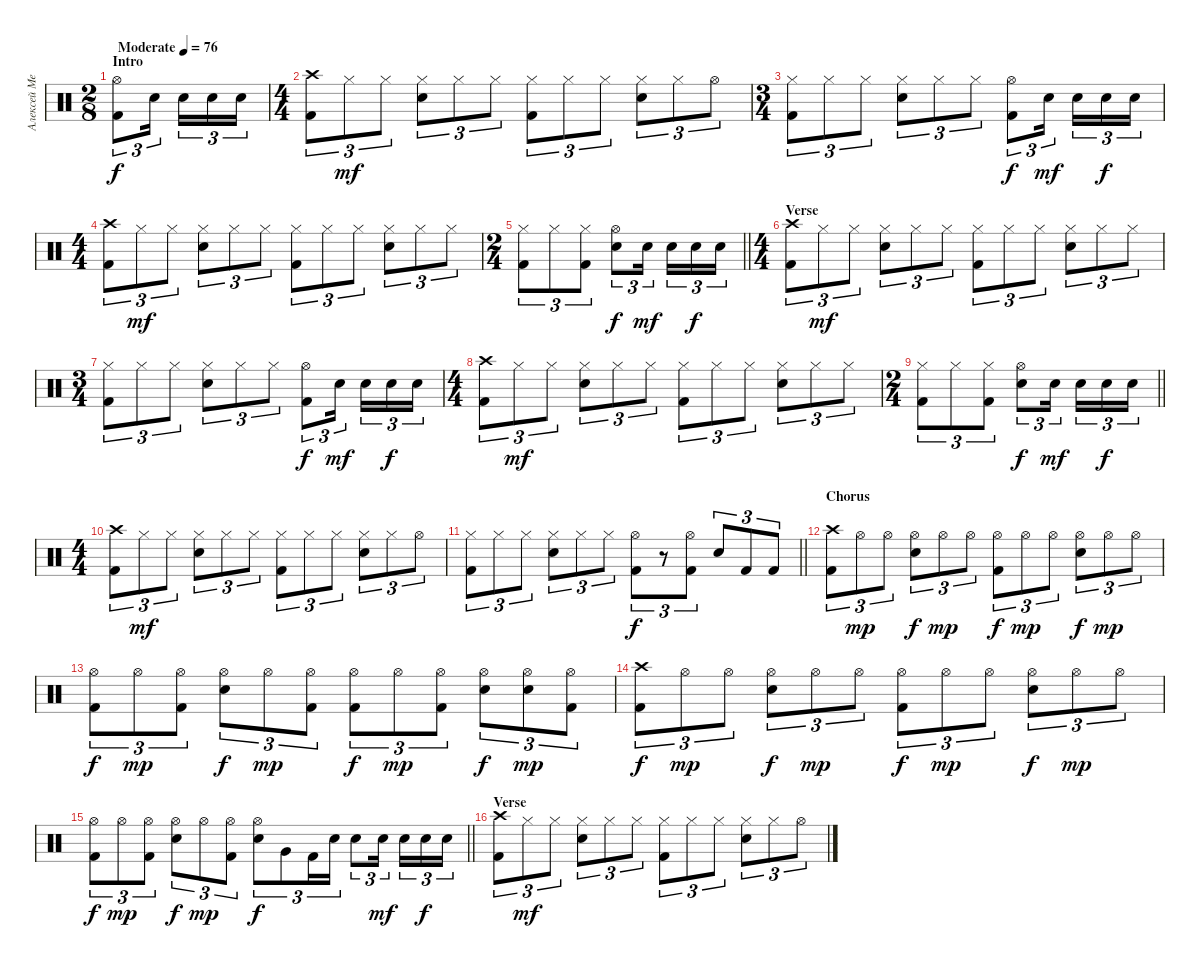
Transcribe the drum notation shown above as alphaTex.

\track ("Алексей Мещеряков" "Алексей Ме") {instrument percussion}
\staff {score}
\articulation defaults
\ts (2 8)
\section ("" "Intro")
\tempo (76 "Moderate")
\clef neutral
\ks c
("Hi-Hat (open)" "Kick (hit) 2").8{tu (3 2) dy f} "Electric Snare (hit)".16{tu (3 2)} "Electric Snare (hit)".16{tu (3 2)} "Electric Snare (hit)".16{tu (3 2)} "Electric Snare (hit)".16{tu (3 2)} |
\ts (4 4)
("Crash high (hit)" "Kick (hit) 2").8{tu (3 2)} "Hi-Hat (closed)".8{tu (3 2) dy mf} "Hi-Hat (closed)".8{tu (3 2)} ("Hi-Hat (closed)" "Electric Snare (hit)").8{tu (3 2)} "Hi-Hat (closed)".8{tu (3 2)} "Hi-Hat (closed)".8{tu (3 2)} ("Hi-Hat (closed)" "Kick (hit) 2").8{tu (3 2)} "Hi-Hat (closed)".8{tu (3 2)} "Hi-Hat (closed)".8{tu (3 2)} ("Hi-Hat (closed)" "Electric Snare (hit)").8{tu (3 2)} "Hi-Hat (closed)".8{tu (3 2)} "Hi-Hat (open)".8{tu (3 2)} |
\ts (3 4)
("Hi-Hat (closed)" "Kick (hit) 2").8{tu (3 2)} "Hi-Hat (closed)".8{tu (3 2)} "Hi-Hat (closed)".8{tu (3 2)} ("Hi-Hat (closed)" "Electric Snare (hit)").8{tu (3 2)} "Hi-Hat (closed)".8{tu (3 2)} "Hi-Hat (closed)".8{tu (3 2)} ("Hi-Hat (open)" "Kick (hit) 2").8{tu (3 2) dy f} "Electric Snare (hit)".16{tu (3 2) dy mf beam splitsecondary} "Electric Snare (hit)".16{tu (3 2)} "Electric Snare (hit)".16{tu (3 2) dy f} "Electric Snare (hit)".16{tu (3 2)} |
\ts (4 4)
("Crash high (hit)" "Kick (hit) 2").8{tu (3 2)} "Hi-Hat (closed)".8{tu (3 2) dy mf} "Hi-Hat (closed)".8{tu (3 2)} ("Hi-Hat (closed)" "Electric Snare (hit)").8{tu (3 2)} "Hi-Hat (closed)".8{tu (3 2)} "Hi-Hat (closed)".8{tu (3 2)} ("Hi-Hat (closed)" "Kick (hit) 2").8{tu (3 2)} "Hi-Hat (closed)".8{tu (3 2)} "Hi-Hat (closed)".8{tu (3 2)} ("Hi-Hat (closed)" "Electric Snare (hit)").8{tu (3 2)} "Hi-Hat (closed)".8{tu (3 2)} "Hi-Hat (closed)".8{tu (3 2)} |
\ts (2 4)
\barLineRight lightlight
("Hi-Hat (closed)" "Kick (hit) 2").8{tu (3 2)} "Hi-Hat (closed)".8{tu (3 2)} ("Hi-Hat (closed)" "Kick (hit) 2").8{tu (3 2)} ("Hi-Hat (open)" "Electric Snare (hit)").8{tu (3 2) dy f} "Electric Snare (hit)".16{tu (3 2) dy mf beam splitsecondary} "Electric Snare (hit)".16{tu (3 2)} "Electric Snare (hit)".16{tu (3 2) dy f} "Electric Snare (hit)".16{tu (3 2)} |
\ts (4 4)
\section ("" "Verse")
("Crash high (hit)" "Kick (hit) 2").8{tu (3 2)} "Hi-Hat (closed)".8{tu (3 2) dy mf} "Hi-Hat (closed)".8{tu (3 2)} ("Hi-Hat (closed)" "Electric Snare (hit)").8{tu (3 2)} "Hi-Hat (closed)".8{tu (3 2)} "Hi-Hat (closed)".8{tu (3 2)} ("Hi-Hat (closed)" "Kick (hit) 2").8{tu (3 2)} "Hi-Hat (closed)".8{tu (3 2)} "Hi-Hat (closed)".8{tu (3 2)} ("Hi-Hat (closed)" "Electric Snare (hit)").8{tu (3 2)} "Hi-Hat (closed)".8{tu (3 2)} "Hi-Hat (closed)".8{tu (3 2)} |
\ts (3 4)
("Hi-Hat (closed)" "Kick (hit) 2").8{tu (3 2)} "Hi-Hat (closed)".8{tu (3 2)} "Hi-Hat (closed)".8{tu (3 2)} ("Hi-Hat (closed)" "Electric Snare (hit)").8{tu (3 2)} "Hi-Hat (closed)".8{tu (3 2)} "Hi-Hat (closed)".8{tu (3 2)} ("Hi-Hat (open)" "Kick (hit) 2").8{tu (3 2) dy f} "Electric Snare (hit)".16{tu (3 2) dy mf beam splitsecondary} "Electric Snare (hit)".16{tu (3 2)} "Electric Snare (hit)".16{tu (3 2) dy f} "Electric Snare (hit)".16{tu (3 2)} |
\ts (4 4)
("Crash high (hit)" "Kick (hit) 2").8{tu (3 2)} "Hi-Hat (closed)".8{tu (3 2) dy mf} "Hi-Hat (closed)".8{tu (3 2)} ("Hi-Hat (closed)" "Electric Snare (hit)").8{tu (3 2)} "Hi-Hat (closed)".8{tu (3 2)} "Hi-Hat (closed)".8{tu (3 2)} ("Hi-Hat (closed)" "Kick (hit) 2").8{tu (3 2)} "Hi-Hat (closed)".8{tu (3 2)} "Hi-Hat (closed)".8{tu (3 2)} ("Hi-Hat (closed)" "Electric Snare (hit)").8{tu (3 2)} "Hi-Hat (closed)".8{tu (3 2)} "Hi-Hat (closed)".8{tu (3 2)} |
\ts (2 4)
\barLineRight lightlight
("Hi-Hat (closed)" "Kick (hit) 2").8{tu (3 2)} "Hi-Hat (closed)".8{tu (3 2)} ("Hi-Hat (closed)" "Kick (hit) 2").8{tu (3 2)} ("Hi-Hat (open)" "Electric Snare (hit)").8{tu (3 2) dy f} "Electric Snare (hit)".16{tu (3 2) dy mf beam splitsecondary} "Electric Snare (hit)".16{tu (3 2)} "Electric Snare (hit)".16{tu (3 2) dy f} "Electric Snare (hit)".16{tu (3 2)} |
\ts (4 4)
("Crash high (hit)" "Kick (hit) 2").8{tu (3 2)} "Hi-Hat (closed)".8{tu (3 2) dy mf} "Hi-Hat (closed)".8{tu (3 2)} ("Hi-Hat (closed)" "Electric Snare (hit)").8{tu (3 2)} "Hi-Hat (closed)".8{tu (3 2)} "Hi-Hat (closed)".8{tu (3 2)} ("Hi-Hat (closed)" "Kick (hit) 2").8{tu (3 2)} "Hi-Hat (closed)".8{tu (3 2)} "Hi-Hat (closed)".8{tu (3 2)} ("Hi-Hat (closed)" "Electric Snare (hit)").8{tu (3 2)} "Hi-Hat (closed)".8{tu (3 2)} "Hi-Hat (open)".8{tu (3 2)} |
\barLineRight lightlight
("Hi-Hat (closed)" "Kick (hit) 2").8{tu (3 2)} "Hi-Hat (closed)".8{tu (3 2)} "Hi-Hat (closed)".8{tu (3 2)} ("Hi-Hat (closed)" "Electric Snare (hit)").8{tu (3 2)} "Hi-Hat (closed)".8{tu (3 2)} "Hi-Hat (closed)".8{tu (3 2)} ("Hi-Hat (open)" "Kick (hit) 2").8{tu (3 2) dy f} r.8{tu (3 2)} ("Hi-Hat (open)" "Kick (hit) 2").8{tu (3 2)} "Electric Snare (hit)".8{tu (3 2)} "Kick (hit) 2".8{tu (3 2)} "Kick (hit) 2".8{tu (3 2)} |
\section ("" "Chorus")
("Crash high (hit)" "Kick (hit) 2").8{tu (3 2)} "Hi-Hat (open)".8{tu (3 2) dy mp} "Hi-Hat (open)".8{tu (3 2)} ("Hi-Hat (open)" "Electric Snare (hit)").8{tu (3 2) dy f} "Hi-Hat (open)".8{tu (3 2) dy mp} "Hi-Hat (open)".8{tu (3 2)} ("Hi-Hat (open)" "Kick (hit) 2").8{tu (3 2) dy f} "Hi-Hat (open)".8{tu (3 2) dy mp} "Hi-Hat (open)".8{tu (3 2)} ("Hi-Hat (open)" "Electric Snare (hit)").8{tu (3 2) dy f} "Hi-Hat (open)".8{tu (3 2) dy mp} "Hi-Hat (open)".8{tu (3 2)} |
("Hi-Hat (open)" "Kick (hit) 2").8{tu (3 2) dy f} "Hi-Hat (open)".8{tu (3 2) dy mp} ("Hi-Hat (open)" "Kick (hit) 2").8{tu (3 2)} ("Hi-Hat (open)" "Electric Snare (hit)").8{tu (3 2) dy f} "Hi-Hat (open)".8{tu (3 2) dy mp} ("Hi-Hat (open)" "Kick (hit) 2").8{tu (3 2)} ("Hi-Hat (open)" "Kick (hit) 2").8{tu (3 2) dy f} "Hi-Hat (open)".8{tu (3 2) dy mp} ("Hi-Hat (open)" "Kick (hit) 2").8{tu (3 2)} ("Hi-Hat (open)" "Electric Snare (hit)").8{tu (3 2) dy f} ("Hi-Hat (open)" "Electric Snare (hit)").8{tu (3 2) dy mp} ("Hi-Hat (open)" "Kick (hit) 2").8{tu (3 2)} |
("Crash high (hit)" "Kick (hit) 2").8{tu (3 2) dy f} "Hi-Hat (open)".8{tu (3 2) dy mp} "Hi-Hat (open)".8{tu (3 2)} ("Hi-Hat (open)" "Electric Snare (hit)").8{tu (3 2) dy f} "Hi-Hat (open)".8{tu (3 2) dy mp} "Hi-Hat (open)".8{tu (3 2)} ("Hi-Hat (open)" "Kick (hit) 2").8{tu (3 2) dy f} "Hi-Hat (open)".8{tu (3 2) dy mp} "Hi-Hat (open)".8{tu (3 2)} ("Hi-Hat (open)" "Electric Snare (hit)").8{tu (3 2) dy f} "Hi-Hat (open)".8{tu (3 2) dy mp} "Hi-Hat (open)".8{tu (3 2)} |
\barLineRight lightlight
("Hi-Hat (open)" "Kick (hit) 2").8{tu (3 2) dy f} "Hi-Hat (open)".8{tu (3 2) dy mp} ("Hi-Hat (open)" "Kick (hit) 2").8{tu (3 2)} ("Hi-Hat (open)" "Electric Snare (hit)").8{tu (3 2) dy f} "Hi-Hat (open)".8{tu (3 2) dy mp} ("Hi-Hat (open)" "Kick (hit) 2").8{tu (3 2)} ("Hi-Hat (open)" "Electric Snare (hit)").8{tu (3 2) dy f} "Very Low Tom (hit)".8{tu (3 2)} "Kick (hit) 2".16{tu (3 2)} "Electric Snare (hit)".16{tu (3 2)} "Electric Snare (hit)".8{tu (3 2)} "Electric Snare (hit)".16{tu (3 2) dy mf beam splitsecondary} "Electric Snare (hit)".16{tu (3 2)} "Electric Snare (hit)".16{tu (3 2) dy f} "Electric Snare (hit)".16{tu (3 2)} |
\section ("" "Verse ")
("Crash high (hit)" "Kick (hit) 2").8{tu (3 2)} "Hi-Hat (closed)".8{tu (3 2) dy mf} "Hi-Hat (closed)".8{tu (3 2)} ("Hi-Hat (closed)" "Electric Snare (hit)").8{tu (3 2)} "Hi-Hat (closed)".8{tu (3 2)} "Hi-Hat (closed)".8{tu (3 2)} ("Hi-Hat (closed)" "Kick (hit) 2").8{tu (3 2)} "Hi-Hat (closed)".8{tu (3 2)} "Hi-Hat (closed)".8{tu (3 2)} ("Hi-Hat (closed)" "Electric Snare (hit)").8{tu (3 2)} "Hi-Hat (closed)".8{tu (3 2)} "Hi-Hat (open)".8{tu (3 2)}
